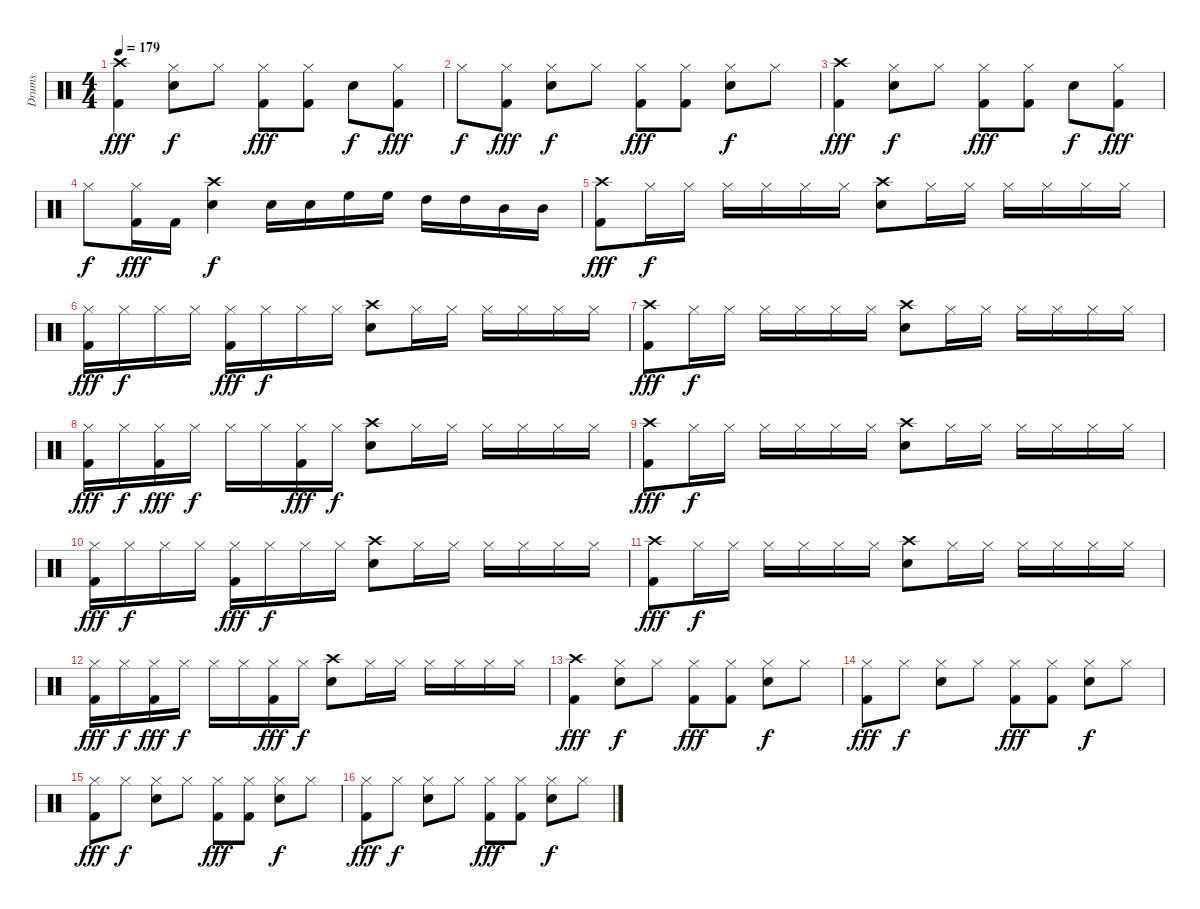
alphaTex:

\track ("Drums" "Drums") {instrument percussion}
\staff {score}
\articulation defaults
\ts (4 4)
\tempo 179
\clef neutral
\ks c
("Crash high (hit)" "Kick (hit) 2").4{dy fff} ("Hi-Hat (closed)" "Electric Snare (hit)").8{dy f} "Hi-Hat (closed)".8 ("Hi-Hat (closed)" "Kick (hit) 2").8{dy fff} ("Hi-Hat (closed)" "Kick (hit) 2").8 "Electric Snare (hit)".8{dy f} ("Hi-Hat (closed)" "Kick (hit) 2").8{dy fff} |
"Hi-Hat (closed)".8{dy f} ("Hi-Hat (closed)" "Kick (hit) 2").8{dy fff} ("Hi-Hat (closed)" "Electric Snare (hit)").8{dy f} "Hi-Hat (closed)".8 ("Hi-Hat (closed)" "Kick (hit) 2").8{dy fff} ("Hi-Hat (closed)" "Kick (hit) 2").8 ("Hi-Hat (closed)" "Electric Snare (hit)").8{dy f} "Hi-Hat (closed)".8 |
("Crash high (hit)" "Kick (hit) 2").4{dy fff} ("Hi-Hat (closed)" "Electric Snare (hit)").8{dy f} "Hi-Hat (closed)".8 ("Hi-Hat (closed)" "Kick (hit) 2").8{dy fff} ("Hi-Hat (closed)" "Kick (hit) 2").8 "Electric Snare (hit)".8{dy f} ("Hi-Hat (closed)" "Kick (hit) 2").8{dy fff} |
"Hi-Hat (closed)".8{dy f} ("Hi-Hat (closed)" "Kick (hit) 2").16{dy fff} "Kick (hit) 2".16 ("Crash high (hit)" "Electric Snare (hit)").4{dy f} "Electric Snare (hit)".16 "Electric Snare (hit)".16 "High Floor Tom (hit)".16 "High Floor Tom (hit)".16 "High Tom (hit)".16 "High Tom (hit)".16 "Mid Tom (hit)".16 "Mid Tom (hit)".16 |
("Crash high (hit)" "Kick (hit) 2").8{dy fff} "Hi-Hat (closed)".16{dy f} "Hi-Hat (closed)".16 "Hi-Hat (closed)".16 "Hi-Hat (closed)".16 "Hi-Hat (closed)".16 "Hi-Hat (closed)".16 ("Crash high (hit)" "Electric Snare (hit)").8 "Hi-Hat (closed)".16 "Hi-Hat (closed)".16 "Hi-Hat (closed)".16 "Hi-Hat (closed)".16 "Hi-Hat (closed)".16 "Hi-Hat (closed)".16 |
("Hi-Hat (closed)" "Kick (hit) 2").16{dy fff} "Hi-Hat (closed)".16{dy f} "Hi-Hat (closed)".16 "Hi-Hat (closed)".16 ("Hi-Hat (closed)" "Kick (hit) 2").16{dy fff} "Hi-Hat (closed)".16{dy f} "Hi-Hat (closed)".16 "Hi-Hat (closed)".16 ("Crash high (hit)" "Electric Snare (hit)").8 "Hi-Hat (closed)".16 "Hi-Hat (closed)".16 "Hi-Hat (closed)".16 "Hi-Hat (closed)".16 "Hi-Hat (closed)".16 "Hi-Hat (closed)".16 |
("Crash high (hit)" "Kick (hit) 2").8{dy fff} "Hi-Hat (closed)".16{dy f} "Hi-Hat (closed)".16 "Hi-Hat (closed)".16 "Hi-Hat (closed)".16 "Hi-Hat (closed)".16 "Hi-Hat (closed)".16 ("Crash high (hit)" "Electric Snare (hit)").8 "Hi-Hat (closed)".16 "Hi-Hat (closed)".16 "Hi-Hat (closed)".16 "Hi-Hat (closed)".16 "Hi-Hat (closed)".16 "Hi-Hat (closed)".16 |
("Hi-Hat (closed)" "Kick (hit) 2").16{dy fff} "Hi-Hat (closed)".16{dy f} ("Hi-Hat (closed)" "Kick (hit) 2").16{dy fff} "Hi-Hat (closed)".16{dy f} "Hi-Hat (closed)".16 "Hi-Hat (closed)".16 ("Hi-Hat (closed)" "Kick (hit) 2").16{dy fff} "Hi-Hat (closed)".16{dy f} ("Crash high (hit)" "Electric Snare (hit)").8 "Hi-Hat (closed)".16 "Hi-Hat (closed)".16 "Hi-Hat (closed)".16 "Hi-Hat (closed)".16 "Hi-Hat (closed)".16 "Hi-Hat (closed)".16 |
("Crash high (hit)" "Kick (hit) 2").8{dy fff} "Hi-Hat (closed)".16{dy f} "Hi-Hat (closed)".16 "Hi-Hat (closed)".16 "Hi-Hat (closed)".16 "Hi-Hat (closed)".16 "Hi-Hat (closed)".16 ("Crash high (hit)" "Electric Snare (hit)").8 "Hi-Hat (closed)".16 "Hi-Hat (closed)".16 "Hi-Hat (closed)".16 "Hi-Hat (closed)".16 "Hi-Hat (closed)".16 "Hi-Hat (closed)".16 |
("Hi-Hat (closed)" "Kick (hit) 2").16{dy fff} "Hi-Hat (closed)".16{dy f} "Hi-Hat (closed)".16 "Hi-Hat (closed)".16 ("Hi-Hat (closed)" "Kick (hit) 2").16{dy fff} "Hi-Hat (closed)".16{dy f} "Hi-Hat (closed)".16 "Hi-Hat (closed)".16 ("Crash high (hit)" "Electric Snare (hit)").8 "Hi-Hat (closed)".16 "Hi-Hat (closed)".16 "Hi-Hat (closed)".16 "Hi-Hat (closed)".16 "Hi-Hat (closed)".16 "Hi-Hat (closed)".16 |
("Crash high (hit)" "Kick (hit) 2").8{dy fff} "Hi-Hat (closed)".16{dy f} "Hi-Hat (closed)".16 "Hi-Hat (closed)".16 "Hi-Hat (closed)".16 "Hi-Hat (closed)".16 "Hi-Hat (closed)".16 ("Crash high (hit)" "Electric Snare (hit)").8 "Hi-Hat (closed)".16 "Hi-Hat (closed)".16 "Hi-Hat (closed)".16 "Hi-Hat (closed)".16 "Hi-Hat (closed)".16 "Hi-Hat (closed)".16 |
("Hi-Hat (closed)" "Kick (hit) 2").16{dy fff} "Hi-Hat (closed)".16{dy f} ("Hi-Hat (closed)" "Kick (hit) 2").16{dy fff} "Hi-Hat (closed)".16{dy f} "Hi-Hat (closed)".16 "Hi-Hat (closed)".16 ("Hi-Hat (closed)" "Kick (hit) 2").16{dy fff} "Hi-Hat (closed)".16{dy f} ("Crash high (hit)" "Electric Snare (hit)").8 "Hi-Hat (closed)".16 "Hi-Hat (closed)".16 "Hi-Hat (closed)".16 "Hi-Hat (closed)".16 "Hi-Hat (closed)".16 "Hi-Hat (closed)".16 |
("Crash high (hit)" "Kick (hit) 2").4{dy fff} ("Hi-Hat (closed)" "Electric Snare (hit)").8{dy f} "Hi-Hat (closed)".8 ("Hi-Hat (closed)" "Kick (hit) 2").8{dy fff} ("Hi-Hat (closed)" "Kick (hit) 2").8 ("Hi-Hat (closed)" "Electric Snare (hit)").8{dy f} "Hi-Hat (closed)".8 |
("Hi-Hat (closed)" "Kick (hit) 2").8{dy fff} "Hi-Hat (closed)".8{dy f} ("Hi-Hat (closed)" "Electric Snare (hit)").8 "Hi-Hat (closed)".8 ("Hi-Hat (closed)" "Kick (hit) 2").8{dy fff} ("Hi-Hat (closed)" "Kick (hit) 2").8 ("Hi-Hat (closed)" "Electric Snare (hit)").8{dy f} "Hi-Hat (closed)".8 |
("Hi-Hat (closed)" "Kick (hit) 2").8{dy fff} "Hi-Hat (closed)".8{dy f} ("Hi-Hat (closed)" "Electric Snare (hit)").8 "Hi-Hat (closed)".8 ("Hi-Hat (closed)" "Kick (hit) 2").8{dy fff} ("Hi-Hat (closed)" "Kick (hit) 2").8 ("Hi-Hat (closed)" "Electric Snare (hit)").8{dy f} "Hi-Hat (closed)".8 |
("Hi-Hat (closed)" "Kick (hit) 2").8{dy fff} "Hi-Hat (closed)".8{dy f} ("Hi-Hat (closed)" "Electric Snare (hit)").8 "Hi-Hat (closed)".8 ("Hi-Hat (closed)" "Kick (hit) 2").8{dy fff} ("Hi-Hat (closed)" "Kick (hit) 2").8 ("Hi-Hat (closed)" "Electric Snare (hit)").8{dy f} "Hi-Hat (closed)".8
